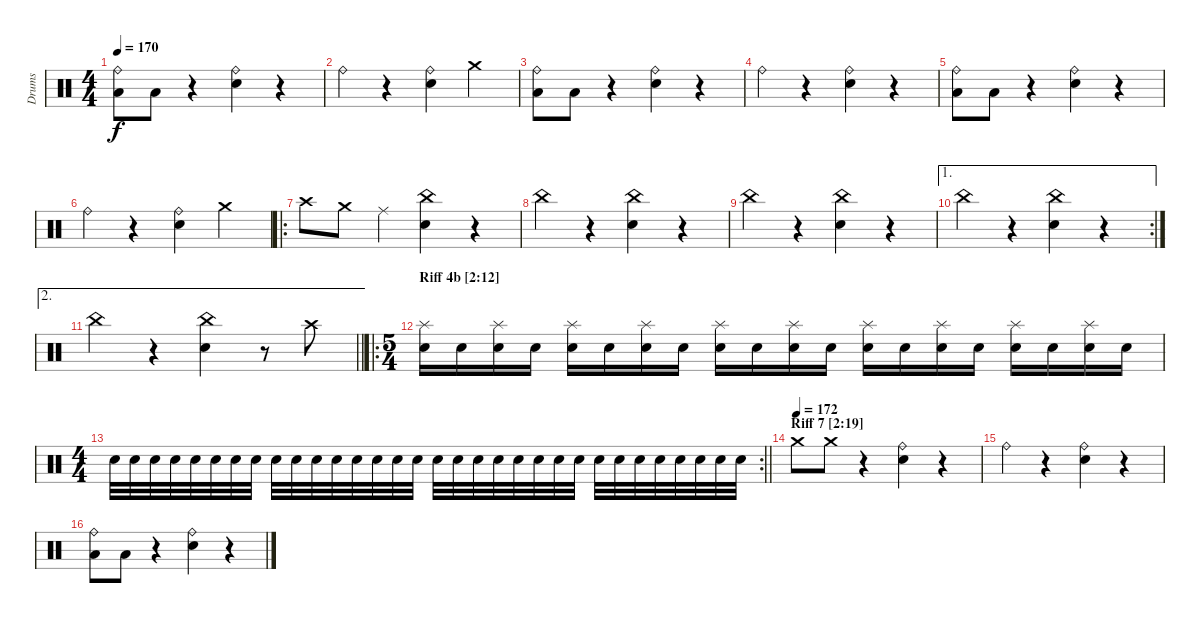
\track ("Drums" "Drums") {instrument percussion}
\staff {score}
\articulation defaults
\ts (4 4)
\tempo 170
\clef neutral
\ks c
("Ride (bell)" "Low Floor Tom (hit)").8{dy f} "Low Floor Tom (hit)".8 r.4 ("Ride (bell)" "Electric Snare (hit)").4 r.4 |
"Ride (bell)".4 r.4 ("Ride (bell)" "Electric Snare (hit)").4 "Crash medium (hit)".4 |
("Ride (bell)" "Low Floor Tom (hit)").8 "Low Floor Tom (hit)".8 r.4 ("Ride (bell)" "Electric Snare (hit)").4 r.4 |
"Ride (bell)".4 r.4 ("Ride (bell)" "Electric Snare (hit)").4 r.4 |
("Ride (bell)" "Low Floor Tom (hit)").8 "Low Floor Tom (hit)".8 r.4 ("Ride (bell)" "Electric Snare (hit)").4 r.4 |
"Ride (bell)".4 r.4 ("Ride (bell)" "Electric Snare (hit)").4 "Crash medium (hit)".4 |
\ro "Crash high (hit)".8 "Crash medium (hit)".8 "Ride (middle)".4
("China (hit)" "Electric Snare (hit)").4 r.4 |
"China (hit)".4 r.4 ("China (hit)" "Electric Snare (hit)").4 r.4 |
"China (hit)".4 r.4 ("China (hit)" "Electric Snare (hit)").4 r.4 |
\ae 1
\rc 2 "China (hit)".4
r.4 ("China (hit)" "Electric Snare (hit)").4 r.4 |
\ae 2
\barLineRight lightlight "China (hit)".4
r.4 ("China (hit)" "Electric Snare (hit)").4 r.8 "Crash high (hit)".8 |
\ro
\ts (5 4)
\section ("" "Riff 4b [2:12]")
("Splash (hit)" "Electric Snare (hit)").16 "Electric Snare (hit)".16 ("Splash (hit)" "Electric Snare (hit)").16 "Electric Snare (hit)".16 ("Splash (hit)" "Electric Snare (hit)").16 "Electric Snare (hit)".16 ("Splash (hit)" "Electric Snare (hit)").16 "Electric Snare (hit)".16 ("Splash (hit)" "Electric Snare (hit)").16 "Electric Snare (hit)".16 ("Splash (hit)" "Electric Snare (hit)").16 "Electric Snare (hit)".16 ("Splash (hit)" "Electric Snare (hit)").16 "Electric Snare (hit)".16 ("Splash (hit)" "Electric Snare (hit)").16 "Electric Snare (hit)".16 ("Splash (hit)" "Electric Snare (hit)").16 "Electric Snare (hit)".16 ("Splash (hit)" "Electric Snare (hit)").16 "Electric Snare (hit)".16 |
\rc 2
\ts (4 4)
\barLineRight lightlight "Electric Snare (hit)".32 "Electric Snare (hit)".32 "Electric Snare (hit)".32 "Electric Snare (hit)".32 "Electric Snare (hit)".32 "Electric Snare (hit)".32 "Electric Snare (hit)".32 "Electric Snare (hit)".32 "Electric Snare (hit)".32 "Electric Snare (hit)".32 "Electric Snare (hit)".32 "Electric Snare (hit)".32 "Electric Snare (hit)".32 "Electric Snare (hit)".32 "Electric Snare (hit)".32 "Electric Snare (hit)".32 "Electric Snare (hit)".32 "Electric Snare (hit)".32 "Electric Snare (hit)".32 "Electric Snare (hit)".32 "Electric Snare (hit)".32 "Electric Snare (hit)".32 "Electric Snare (hit)".32 "Electric Snare (hit)".32 "Electric Snare (hit)".32 "Electric Snare (hit)".32 "Electric Snare (hit)".32 "Electric Snare (hit)".32 "Electric Snare (hit)".32 "Electric Snare (hit)".32 "Electric Snare (hit)".32 "Electric Snare (hit)".32
|
\section ("" "Riff 7 [2:19]")
\tempo (172)
"Crash medium (hit)".8 "Crash medium (hit)".8 r.4 ("Ride (bell)" "Electric Snare (hit)").4 r.4 |
"Ride (bell)".4 r.4 ("Ride (bell)" "Electric Snare (hit)").4 r.4 |
("Ride (bell)" "Low Floor Tom (hit)").8 "Low Floor Tom (hit)".8 r.4 ("Ride (bell)" "Electric Snare (hit)").4 r.4
